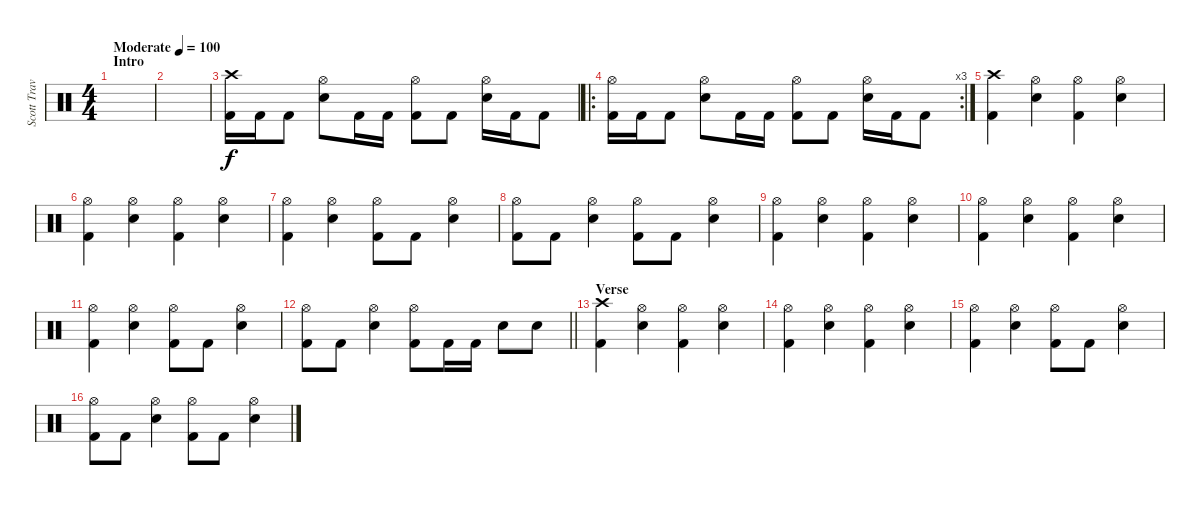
\track ("Scott Travis" "Scott Trav") {instrument percussion}
\staff {score}
\articulation defaults
\ts (4 4)
\section ("" "Intro")
\tempo (100 "Moderate")
\clef neutral
\ks c
|
|
("Crash high (hit)" "Kick (hit) 2").16 "Kick (hit) 2".16 "Kick (hit) 2".8 ("Hi-Hat (open)" "Snare (hit) 2").8 "Kick (hit) 2".16 "Kick (hit) 2".16 ("Hi-Hat (open)" "Kick (hit) 2").8 "Kick (hit) 2".8 ("Hi-Hat (open)" "Snare (hit) 2").16 "Kick (hit) 2".16 "Kick (hit) 2".8 |
\ro
\rc 3
("Hi-Hat (open)" "Kick (hit) 2").16 "Kick (hit) 2".16 "Kick (hit) 2".8 ("Hi-Hat (open)" "Snare (hit) 2").8 "Kick (hit) 2".16 "Kick (hit) 2".16 ("Hi-Hat (open)" "Kick (hit) 2").8 "Kick (hit) 2".8 ("Hi-Hat (open)" "Snare (hit) 2").16 "Kick (hit) 2".16 "Kick (hit) 2".8 |
("Crash high (hit)" "Kick (hit) 2").4 ("Hi-Hat (open)" "Snare (hit) 2").4 ("Hi-Hat (open)" "Kick (hit) 2").4 ("Hi-Hat (open)" "Snare (hit) 2").4 |
("Hi-Hat (open)" "Kick (hit) 2").4 ("Hi-Hat (open)" "Snare (hit) 2").4 ("Hi-Hat (open)" "Kick (hit) 2").4 ("Hi-Hat (open)" "Snare (hit) 2").4 |
("Hi-Hat (open)" "Kick (hit) 2").4 ("Hi-Hat (open)" "Snare (hit) 2").4 ("Hi-Hat (open)" "Kick (hit) 2").8 "Kick (hit) 2".8 ("Hi-Hat (open)" "Snare (hit) 2").4 |
("Hi-Hat (open)" "Kick (hit) 2").8 "Kick (hit) 2".8 ("Hi-Hat (open)" "Snare (hit) 2").4 ("Hi-Hat (open)" "Kick (hit) 2").8 "Kick (hit) 2".8 ("Hi-Hat (open)" "Snare (hit) 2").4 |
("Hi-Hat (open)" "Kick (hit) 2").4 ("Hi-Hat (open)" "Snare (hit) 2").4 ("Hi-Hat (open)" "Kick (hit) 2").4 ("Hi-Hat (open)" "Snare (hit) 2").4 |
("Hi-Hat (open)" "Kick (hit) 2").4 ("Hi-Hat (open)" "Snare (hit) 2").4 ("Hi-Hat (open)" "Kick (hit) 2").4 ("Hi-Hat (open)" "Snare (hit) 2").4 |
("Hi-Hat (open)" "Kick (hit) 2").4 ("Hi-Hat (open)" "Snare (hit) 2").4 ("Hi-Hat (open)" "Kick (hit) 2").8 "Kick (hit) 2".8 ("Hi-Hat (open)" "Snare (hit) 2").4 |
\barLineRight lightlight
("Hi-Hat (open)" "Kick (hit) 2").8 "Kick (hit) 2".8 ("Hi-Hat (open)" "Snare (hit) 2").4 ("Hi-Hat (open)" "Kick (hit) 2").8 "Kick (hit) 2".16 "Kick (hit) 2".16 "Snare (hit) 2".8 "Snare (hit) 2".8 |
\section ("" "Verse")
("Crash high (hit)" "Kick (hit) 2").4 ("Hi-Hat (open)" "Snare (hit) 2").4 ("Hi-Hat (open)" "Kick (hit) 2").4 ("Hi-Hat (open)" "Snare (hit) 2").4 |
("Hi-Hat (open)" "Kick (hit) 2").4 ("Hi-Hat (open)" "Snare (hit) 2").4 ("Hi-Hat (open)" "Kick (hit) 2").4 ("Hi-Hat (open)" "Snare (hit) 2").4 |
("Hi-Hat (open)" "Kick (hit) 2").4 ("Hi-Hat (open)" "Snare (hit) 2").4 ("Hi-Hat (open)" "Kick (hit) 2").8 "Kick (hit) 2".8 ("Hi-Hat (open)" "Snare (hit) 2").4 |
("Hi-Hat (open)" "Kick (hit) 2").8 "Kick (hit) 2".8 ("Hi-Hat (open)" "Snare (hit) 2").4 ("Hi-Hat (open)" "Kick (hit) 2").8 "Kick (hit) 2".8 ("Hi-Hat (open)" "Snare (hit) 2").4
